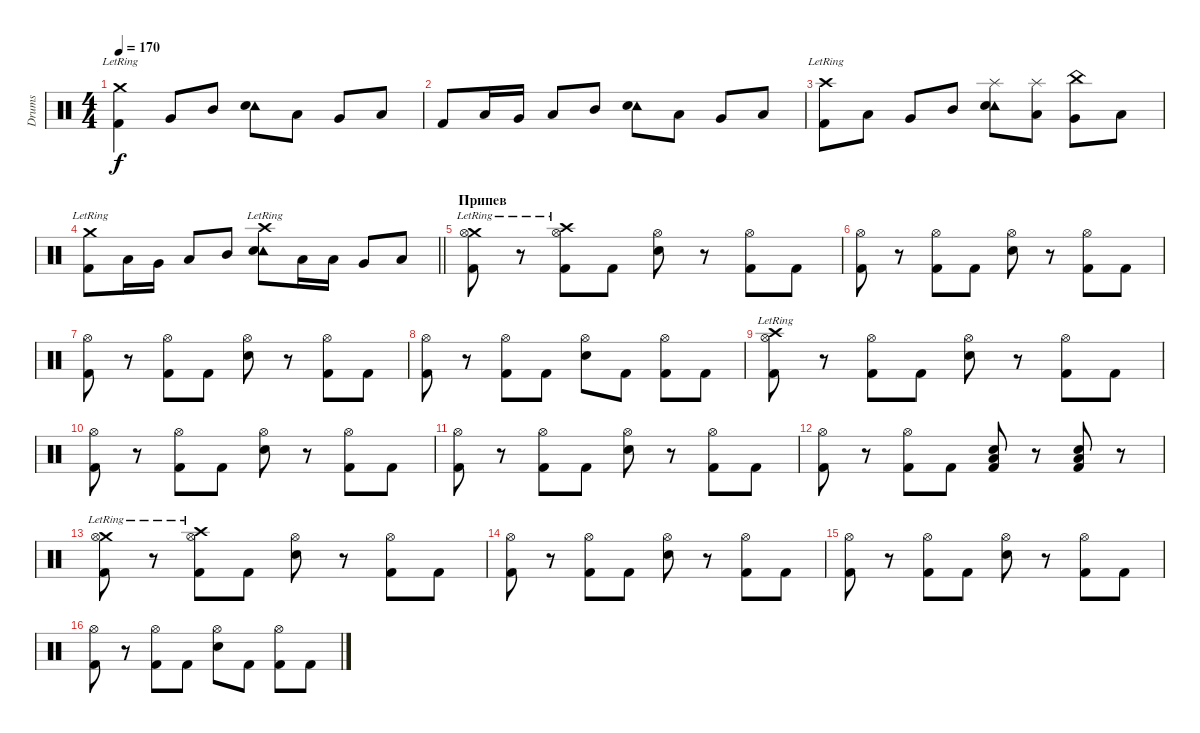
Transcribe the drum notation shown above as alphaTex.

\track ("Drums" "Drums") {instrument percussion}
\staff {score}
\articulation defaults
\ts (4 4)
\tempo 170
\clef neutral
\ks c
("Crash medium (hit)"{lr} "Kick (hit) 2").4{dy f} "Very Low Tom (hit)".8 "Mid Tom (hit)".8 ("Tambourine (hit)" "Electric Snare (hit)").8 "Low Tom (hit)".8 "Very Low Tom (hit)".8 "Low Floor Tom (hit)".8 |
"Kick (hit) 2".8 "Low Tom (hit)".16 "Very Low Tom (hit)".16 "Low Floor Tom (hit)".8 "Mid Tom (hit)".8 ("Tambourine (hit)" "Electric Snare (hit)").8 "Low Tom (hit)".8 "Very Low Tom (hit)".8 "Low Floor Tom (hit)".8 |
("Crash high (hit)"{lr} "Kick (hit) 2").8 "Low Tom (hit)".8 "Very Low Tom (hit)".8 "Mid Tom (hit)".8 ("Splash (hit)" "Tambourine (hit)" "Electric Snare (hit)").8 ("Splash (hit)" "Low Tom (hit)").8 ("China (hit)" "Very Low Tom (hit)").8 "Low Floor Tom (hit)".8 |
\barLineRight lightlight
("Crash medium (hit)"{lr} "Kick (hit) 2").8 "Low Tom (hit)".16 "Very Low Tom (hit)".16 "Low Floor Tom (hit)".8 "Mid Tom (hit)".8 ("Crash high (hit)"{lr} "Tambourine (hit)" "Electric Snare (hit)").8 "Low Tom (hit)".16 "Low Tom (hit)".16 "Very Low Tom (hit)".8 "Low Floor Tom (hit)".8 |
\section ("" "Припев")
("Crash medium (hit)"{lr} "Kick (hit) 2" "Hi-Hat (open)").8 r.8 ("Crash high (hit)"{lr} "Kick (hit) 2" "Hi-Hat (open)").8 "Kick (hit) 2".8 ("Electric Snare (hit)" "Hi-Hat (open)").8 r.8 ("Kick (hit) 2" "Hi-Hat (open)").8 "Kick (hit) 2".8 |
("Kick (hit) 2" "Hi-Hat (open)").8 r.8 ("Kick (hit) 2" "Hi-Hat (open)").8 "Kick (hit) 2".8 ("Electric Snare (hit)" "Hi-Hat (open)").8 r.8 ("Kick (hit) 2" "Hi-Hat (open)").8 "Kick (hit) 2".8 |
("Kick (hit) 2" "Hi-Hat (open)").8 r.8 ("Kick (hit) 2" "Hi-Hat (open)").8 "Kick (hit) 2".8 ("Electric Snare (hit)" "Hi-Hat (open)").8 r.8 ("Kick (hit) 2" "Hi-Hat (open)").8 "Kick (hit) 2".8 |
("Kick (hit) 2" "Hi-Hat (open)").8 r.8 ("Kick (hit) 2" "Hi-Hat (open)").8 "Kick (hit) 2".8 ("Electric Snare (hit)" "Hi-Hat (open)").8 "Kick (hit) 2".8 ("Kick (hit) 2" "Hi-Hat (open)").8 "Kick (hit) 2".8 |
("Crash high (hit)"{lr} "Kick (hit) 2" "Hi-Hat (open)").8 r.8 ("Kick (hit) 2" "Hi-Hat (open)").8 "Kick (hit) 2".8 ("Electric Snare (hit)" "Hi-Hat (open)").8 r.8 ("Kick (hit) 2" "Hi-Hat (open)").8 "Kick (hit) 2".8 |
("Kick (hit) 2" "Hi-Hat (open)").8 r.8 ("Kick (hit) 2" "Hi-Hat (open)").8 "Kick (hit) 2".8 ("Electric Snare (hit)" "Hi-Hat (open)").8 r.8 ("Kick (hit) 2" "Hi-Hat (open)").8 "Kick (hit) 2".8 |
("Kick (hit) 2" "Hi-Hat (open)").8 r.8 ("Kick (hit) 2" "Hi-Hat (open)").8 "Kick (hit) 2".8 ("Electric Snare (hit)" "Hi-Hat (open)").8 r.8 ("Kick (hit) 2" "Hi-Hat (open)").8 "Kick (hit) 2".8 |
("Kick (hit) 2" "Hi-Hat (open)").8 r.8 ("Kick (hit) 2" "Hi-Hat (open)").8 "Kick (hit) 2".8 ("Electric Snare (hit)" "Kick (hit) 2" "Low Floor Tom (hit)").8 r.8 ("Electric Snare (hit)" "Kick (hit) 2" "Low Floor Tom (hit)").8 r.8 |
("Crash medium (hit)"{lr} "Kick (hit) 2" "Hi-Hat (open)").8 r.8 ("Crash high (hit)"{lr} "Kick (hit) 2" "Hi-Hat (open)").8 "Kick (hit) 2".8 ("Electric Snare (hit)" "Hi-Hat (open)").8 r.8 ("Kick (hit) 2" "Hi-Hat (open)").8 "Kick (hit) 2".8 |
("Kick (hit) 2" "Hi-Hat (open)").8 r.8 ("Kick (hit) 2" "Hi-Hat (open)").8 "Kick (hit) 2".8 ("Electric Snare (hit)" "Hi-Hat (open)").8 r.8 ("Kick (hit) 2" "Hi-Hat (open)").8 "Kick (hit) 2".8 |
("Kick (hit) 2" "Hi-Hat (open)").8 r.8 ("Kick (hit) 2" "Hi-Hat (open)").8 "Kick (hit) 2".8 ("Electric Snare (hit)" "Hi-Hat (open)").8 r.8 ("Kick (hit) 2" "Hi-Hat (open)").8 "Kick (hit) 2".8 |
("Kick (hit) 2" "Hi-Hat (open)").8 r.8 ("Kick (hit) 2" "Hi-Hat (open)").8 "Kick (hit) 2".8 ("Electric Snare (hit)" "Hi-Hat (open)").8 "Kick (hit) 2".8 ("Kick (hit) 2" "Hi-Hat (open)").8 "Kick (hit) 2".8
